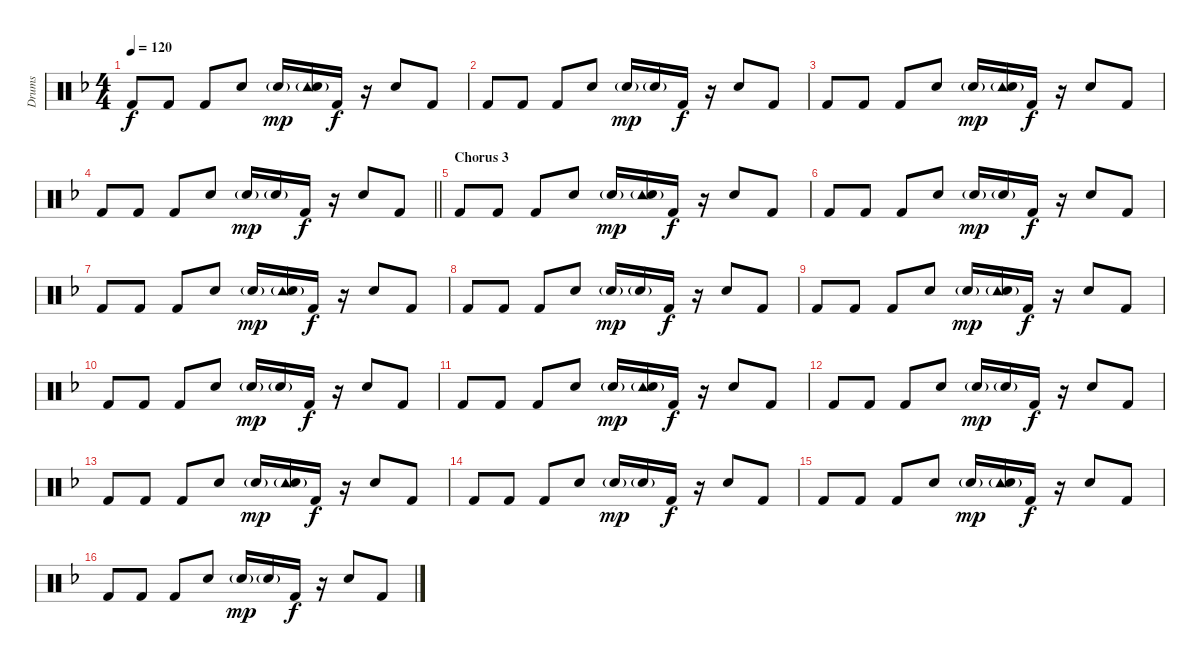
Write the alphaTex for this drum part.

\track ("Drums" "Drums") {instrument percussion}
\staff {score}
\articulation defaults
\ts (4 4)
\tempo 120
\clef neutral
\ks f "Kick (hit) 2".8{dy f} "Kick (hit) 2".8 "Kick (hit) 2".8 "Snare (hit) 2".8 "Snare (hit) 2"{g}.16{dy mp}
("Tambourine (hit)" "Snare (hit) 2"{g}).16 "Kick (hit) 2".16{dy f} r.16 "Snare (hit) 2".8 "Kick (hit) 2".8 |
"Kick (hit) 2".8 "Kick (hit) 2".8 "Kick (hit) 2".8 "Snare (hit) 2".8 "Snare (hit) 2"{g}.16{dy mp} "Snare (hit) 2"{g}.16 "Kick (hit) 2".16{dy f} r.16 "Snare (hit) 2".8 "Kick (hit) 2".8 |
"Kick (hit) 2".8 "Kick (hit) 2".8 "Kick (hit) 2".8 "Snare (hit) 2".8 "Snare (hit) 2"{g}.16{dy mp} ("Tambourine (hit)" "Snare (hit) 2"{g}).16 "Kick (hit) 2".16{dy f} r.16 "Snare (hit) 2".8 "Kick (hit) 2".8 |
\barLineRight lightlight "Kick (hit) 2".8 "Kick (hit) 2".8 "Kick (hit) 2".8 "Snare (hit) 2".8 "Snare (hit) 2"{g}.16{dy mp} "Snare (hit) 2"{g}.16 "Kick (hit) 2".16{dy f}
r.16 "Snare (hit) 2".8 "Kick (hit) 2".8 |
\section ("" "Chorus 3")
"Kick (hit) 2".8 "Kick (hit) 2".8 "Kick (hit) 2".8 "Snare (hit) 2".8 "Snare (hit) 2"{g}.16{dy mp} ("Tambourine (hit)" "Snare (hit) 2"{g}).16 "Kick (hit) 2".16{dy f} r.16 "Snare (hit) 2".8 "Kick (hit) 2".8 |
"Kick (hit) 2".8 "Kick (hit) 2".8 "Kick (hit) 2".8 "Snare (hit) 2".8 "Snare (hit) 2"{g}.16{dy mp} "Snare (hit) 2"{g}.16 "Kick (hit) 2".16{dy f} r.16 "Snare (hit) 2".8 "Kick (hit) 2".8 |
"Kick (hit) 2".8 "Kick (hit) 2".8 "Kick (hit) 2".8 "Snare (hit) 2".8 "Snare (hit) 2"{g}.16{dy mp} ("Tambourine (hit)" "Snare (hit) 2"{g}).16 "Kick (hit) 2".16{dy f} r.16 "Snare (hit) 2".8 "Kick (hit) 2".8 |
"Kick (hit) 2".8 "Kick (hit) 2".8 "Kick (hit) 2".8 "Snare (hit) 2".8 "Snare (hit) 2"{g}.16{dy mp} "Snare (hit) 2"{g}.16 "Kick (hit) 2".16{dy f} r.16 "Snare (hit) 2".8 "Kick (hit) 2".8 |
"Kick (hit) 2".8 "Kick (hit) 2".8 "Kick (hit) 2".8 "Snare (hit) 2".8 "Snare (hit) 2"{g}.16{dy mp} ("Tambourine (hit)" "Snare (hit) 2"{g}).16 "Kick (hit) 2".16{dy f} r.16 "Snare (hit) 2".8 "Kick (hit) 2".8 |
"Kick (hit) 2".8 "Kick (hit) 2".8 "Kick (hit) 2".8 "Snare (hit) 2".8 "Snare (hit) 2"{g}.16{dy mp} "Snare (hit) 2"{g}.16 "Kick (hit) 2".16{dy f} r.16 "Snare (hit) 2".8 "Kick (hit) 2".8 |
"Kick (hit) 2".8 "Kick (hit) 2".8 "Kick (hit) 2".8 "Snare (hit) 2".8 "Snare (hit) 2"{g}.16{dy mp} ("Tambourine (hit)" "Snare (hit) 2"{g}).16 "Kick (hit) 2".16{dy f} r.16 "Snare (hit) 2".8 "Kick (hit) 2".8 |
"Kick (hit) 2".8 "Kick (hit) 2".8 "Kick (hit) 2".8 "Snare (hit) 2".8 "Snare (hit) 2"{g}.16{dy mp} "Snare (hit) 2"{g}.16 "Kick (hit) 2".16{dy f} r.16 "Snare (hit) 2".8 "Kick (hit) 2".8 |
"Kick (hit) 2".8 "Kick (hit) 2".8 "Kick (hit) 2".8 "Snare (hit) 2".8 "Snare (hit) 2"{g}.16{dy mp} ("Tambourine (hit)" "Snare (hit) 2"{g}).16 "Kick (hit) 2".16{dy f} r.16 "Snare (hit) 2".8 "Kick (hit) 2".8 |
"Kick (hit) 2".8 "Kick (hit) 2".8 "Kick (hit) 2".8 "Snare (hit) 2".8 "Snare (hit) 2"{g}.16{dy mp} "Snare (hit) 2"{g}.16 "Kick (hit) 2".16{dy f} r.16 "Snare (hit) 2".8 "Kick (hit) 2".8 |
"Kick (hit) 2".8 "Kick (hit) 2".8 "Kick (hit) 2".8 "Snare (hit) 2".8 "Snare (hit) 2"{g}.16{dy mp} ("Tambourine (hit)" "Snare (hit) 2"{g}).16 "Kick (hit) 2".16{dy f} r.16 "Snare (hit) 2".8 "Kick (hit) 2".8 |
"Kick (hit) 2".8 "Kick (hit) 2".8 "Kick (hit) 2".8 "Snare (hit) 2".8 "Snare (hit) 2"{g}.16{dy mp} "Snare (hit) 2"{g}.16 "Kick (hit) 2".16{dy f} r.16 "Snare (hit) 2".8 "Kick (hit) 2".8
